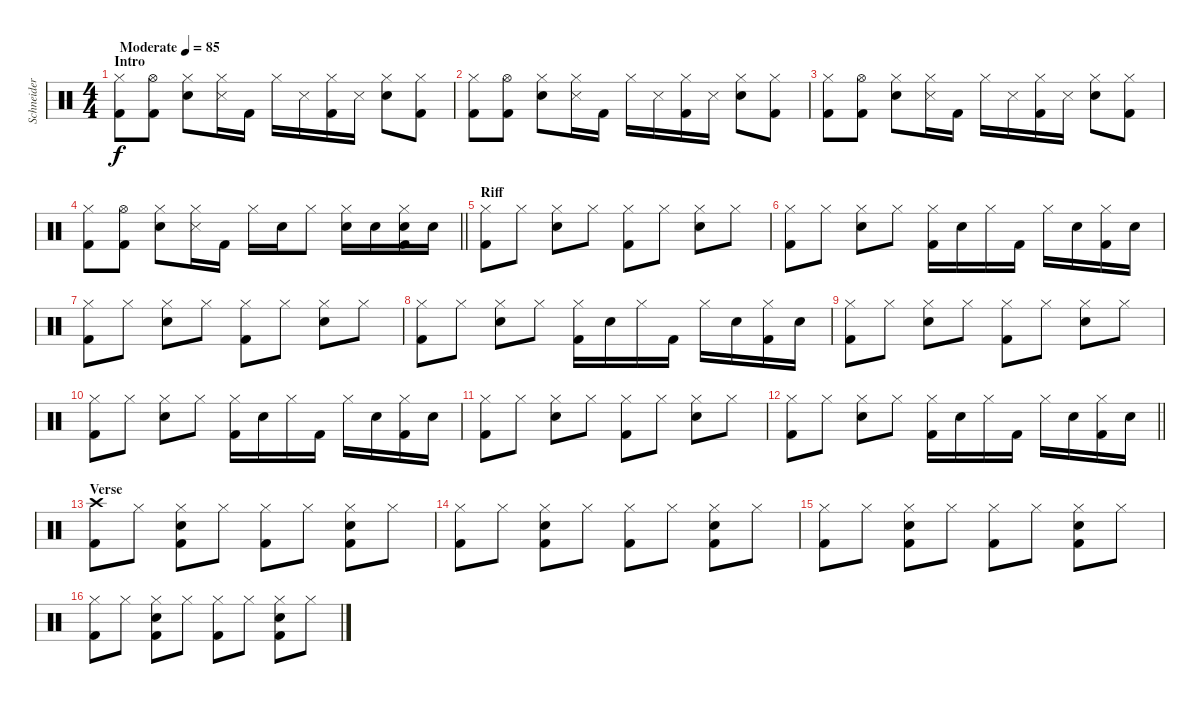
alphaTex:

\track ("Schneider" "Schneider") {instrument percussion}
\staff {score}
\articulation defaults
\ts (4 4)
\section ("" "Intro")
\tempo (85 "Moderate")
\clef neutral
\ks c
("Hi-Hat (closed)" "Kick (hit) 2").8{dy f} ("Hi-Hat (open)" "Kick (hit) 2").8 ("Hi-Hat (closed)" "Snare (hit) 2").8 ("Hi-Hat (closed)" "Snare (side stick) 3").16 "Kick (hit) 2".16 "Hi-Hat (closed)".16 "Snare (side stick) 3".16 ("Hi-Hat (closed)" "Kick (hit) 2").16 "Snare (side stick) 3".16 ("Hi-Hat (closed)" "Snare (hit) 2").8 ("Hi-Hat (closed)" "Kick (hit) 2").8 |
("Hi-Hat (closed)" "Kick (hit) 2").8 ("Hi-Hat (open)" "Kick (hit) 2").8 ("Hi-Hat (closed)" "Snare (hit) 2").8 ("Hi-Hat (closed)" "Snare (side stick) 3").16 "Kick (hit) 2".16 "Hi-Hat (closed)".16 "Snare (side stick) 3".16 ("Hi-Hat (closed)" "Kick (hit) 2").16 "Snare (side stick) 3".16 ("Hi-Hat (closed)" "Snare (hit) 2").8 ("Hi-Hat (closed)" "Kick (hit) 2").8 |
("Hi-Hat (closed)" "Kick (hit) 2").8 ("Hi-Hat (open)" "Kick (hit) 2").8 ("Hi-Hat (closed)" "Snare (hit) 2").8 ("Hi-Hat (closed)" "Snare (side stick) 3").16 "Kick (hit) 2".16 "Hi-Hat (closed)".16 "Snare (side stick) 3".16 ("Hi-Hat (closed)" "Kick (hit) 2").16 "Snare (side stick) 3".16 ("Hi-Hat (closed)" "Snare (hit) 2").8 ("Hi-Hat (closed)" "Kick (hit) 2").8 |
\barLineRight lightlight
("Hi-Hat (closed)" "Kick (hit) 2").8 ("Hi-Hat (open)" "Kick (hit) 2").8 ("Hi-Hat (closed)" "Snare (hit) 2").8 ("Hi-Hat (closed)" "Snare (side stick) 3").16 "Kick (hit) 2".16 "Hi-Hat (closed)".16 "Electric Snare (hit)".16 "Hi-Hat (closed)".8 ("Hi-Hat (closed)" "Electric Snare (hit)").16 "Electric Snare (hit)".16 ("Hi-Hat (closed)" "Electric Snare (hit)" "Kick (hit) 2").16 "Electric Snare (hit)".16 |
\section ("" "Riff")
("Hi-Hat (closed)" "Kick (hit) 2").8 "Hi-Hat (closed)".8 ("Hi-Hat (closed)" "Electric Snare (hit)").8 "Hi-Hat (closed)".8 ("Hi-Hat (closed)" "Kick (hit) 2").8 "Hi-Hat (closed)".8 ("Hi-Hat (closed)" "Electric Snare (hit)").8 "Hi-Hat (closed)".8 |
("Hi-Hat (closed)" "Kick (hit) 2").8 "Hi-Hat (closed)".8 ("Hi-Hat (closed)" "Electric Snare (hit)").8 "Hi-Hat (closed)".8 ("Hi-Hat (closed)" "Kick (hit) 2").16 "Electric Snare (hit)".16 "Hi-Hat (closed)".16 "Kick (hit) 2".16 "Hi-Hat (closed)".16 "Electric Snare (hit)".16 ("Hi-Hat (closed)" "Kick (hit) 2").16 "Electric Snare (hit)".16 |
("Hi-Hat (closed)" "Kick (hit) 2").8 "Hi-Hat (closed)".8 ("Hi-Hat (closed)" "Electric Snare (hit)").8 "Hi-Hat (closed)".8 ("Hi-Hat (closed)" "Kick (hit) 2").8 "Hi-Hat (closed)".8 ("Hi-Hat (closed)" "Electric Snare (hit)").8 "Hi-Hat (closed)".8 |
("Hi-Hat (closed)" "Kick (hit) 2").8 "Hi-Hat (closed)".8 ("Hi-Hat (closed)" "Electric Snare (hit)").8 "Hi-Hat (closed)".8 ("Hi-Hat (closed)" "Kick (hit) 2").16 "Electric Snare (hit)".16 "Hi-Hat (closed)".16 "Kick (hit) 2".16 "Hi-Hat (closed)".16 "Electric Snare (hit)".16 ("Hi-Hat (closed)" "Kick (hit) 2").16 "Electric Snare (hit)".16 |
("Hi-Hat (closed)" "Kick (hit) 2").8 "Hi-Hat (closed)".8 ("Hi-Hat (closed)" "Electric Snare (hit)").8 "Hi-Hat (closed)".8 ("Hi-Hat (closed)" "Kick (hit) 2").8 "Hi-Hat (closed)".8 ("Hi-Hat (closed)" "Electric Snare (hit)").8 "Hi-Hat (closed)".8 |
("Hi-Hat (closed)" "Kick (hit) 2").8 "Hi-Hat (closed)".8 ("Hi-Hat (closed)" "Electric Snare (hit)").8 "Hi-Hat (closed)".8 ("Hi-Hat (closed)" "Kick (hit) 2").16 "Electric Snare (hit)".16 "Hi-Hat (closed)".16 "Kick (hit) 2".16 "Hi-Hat (closed)".16 "Electric Snare (hit)".16 ("Hi-Hat (closed)" "Kick (hit) 2").16 "Electric Snare (hit)".16 |
("Hi-Hat (closed)" "Kick (hit) 2").8 "Hi-Hat (closed)".8 ("Hi-Hat (closed)" "Electric Snare (hit)").8 "Hi-Hat (closed)".8 ("Hi-Hat (closed)" "Kick (hit) 2").8 "Hi-Hat (closed)".8 ("Hi-Hat (closed)" "Electric Snare (hit)").8 "Hi-Hat (closed)".8 |
\barLineRight lightlight
("Hi-Hat (closed)" "Kick (hit) 2").8 "Hi-Hat (closed)".8 ("Hi-Hat (closed)" "Electric Snare (hit)").8 "Hi-Hat (closed)".8 ("Hi-Hat (closed)" "Kick (hit) 2").16 "Electric Snare (hit)".16 "Hi-Hat (closed)".16 "Kick (hit) 2".16 "Hi-Hat (closed)".16 "Electric Snare (hit)".16 ("Hi-Hat (closed)" "Kick (hit) 2").16 "Electric Snare (hit)".16 |
\section ("" "Verse")
("Crash high (hit)" "Kick (hit) 2").8 "Hi-Hat (closed)".8 ("Hi-Hat (closed)" "Electric Snare (hit)" "Kick (hit) 2").8 "Hi-Hat (closed)".8 ("Hi-Hat (closed)" "Kick (hit) 2").8 "Hi-Hat (closed)".8 ("Hi-Hat (closed)" "Electric Snare (hit)" "Kick (hit) 2").8 "Hi-Hat (closed)".8 |
("Hi-Hat (closed)" "Kick (hit) 2").8 "Hi-Hat (closed)".8 ("Hi-Hat (closed)" "Electric Snare (hit)" "Kick (hit) 2").8 "Hi-Hat (closed)".8 ("Hi-Hat (closed)" "Kick (hit) 2").8 "Hi-Hat (closed)".8 ("Hi-Hat (closed)" "Electric Snare (hit)" "Kick (hit) 2").8 "Hi-Hat (closed)".8 |
("Hi-Hat (closed)" "Kick (hit) 2").8 "Hi-Hat (closed)".8 ("Hi-Hat (closed)" "Electric Snare (hit)" "Kick (hit) 2").8 "Hi-Hat (closed)".8 ("Hi-Hat (closed)" "Kick (hit) 2").8 "Hi-Hat (closed)".8 ("Hi-Hat (closed)" "Electric Snare (hit)" "Kick (hit) 2").8 "Hi-Hat (closed)".8 |
("Hi-Hat (closed)" "Kick (hit) 2").8 "Hi-Hat (closed)".8 ("Hi-Hat (closed)" "Electric Snare (hit)" "Kick (hit) 2").8 "Hi-Hat (closed)".8 ("Hi-Hat (closed)" "Kick (hit) 2").8 "Hi-Hat (closed)".8 ("Hi-Hat (closed)" "Electric Snare (hit)" "Kick (hit) 2").8 "Hi-Hat (closed)".8
